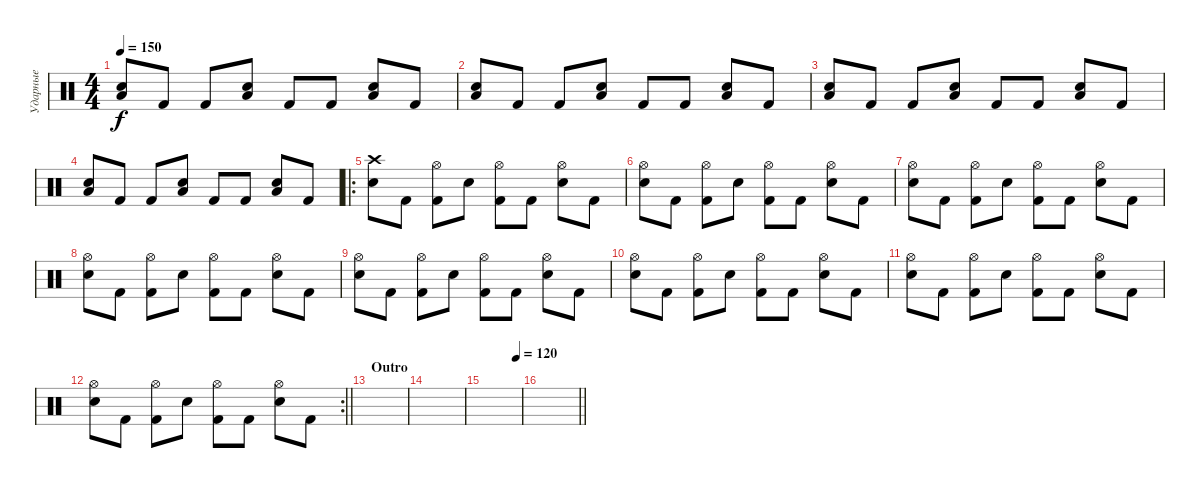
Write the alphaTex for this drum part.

\track ("Ударные" "Ударные") {instrument percussion}
\staff {score}
\articulation defaults
\ts (4 4)
\tempo 150
\clef neutral
\ks c
("Low Tom (hit)" "Electric Snare (hit)").8{dy f} "Kick (hit) 2".8 "Kick (hit) 2".8 ("Electric Snare (hit)" "Low Tom (hit)").8 "Kick (hit) 2".8 "Kick (hit) 2".8 ("Electric Snare (hit)" "Low Tom (hit)").8 "Kick (hit) 2".8 |
("Low Tom (hit)" "Electric Snare (hit)").8 "Kick (hit) 2".8 "Kick (hit) 2".8 ("Electric Snare (hit)" "Low Tom (hit)").8 "Kick (hit) 2".8 "Kick (hit) 2".8 ("Electric Snare (hit)" "Low Tom (hit)").8 "Kick (hit) 2".8 |
("Low Tom (hit)" "Electric Snare (hit)").8 "Kick (hit) 2".8 "Kick (hit) 2".8 ("Electric Snare (hit)" "Low Tom (hit)").8 "Kick (hit) 2".8 "Kick (hit) 2".8 ("Electric Snare (hit)" "Low Tom (hit)").8 "Kick (hit) 2".8 |
("Low Tom (hit)" "Electric Snare (hit)").8 "Kick (hit) 2".8 "Kick (hit) 2".8 ("Electric Snare (hit)" "Low Tom (hit)").8 "Kick (hit) 2".8 "Kick (hit) 2".8 ("Electric Snare (hit)" "Low Tom (hit)").8 "Kick (hit) 2".8 |
\ro
("Crash high (hit)" "Electric Snare (hit)").8 "Kick (hit) 2".8 ("Kick (hit) 2" "Hi-Hat (open)").8 "Snare (hit) 2".8 ("Kick (hit) 2" "Hi-Hat (open)").8 "Kick (hit) 2".8 ("Snare (hit) 2" "Hi-Hat (open)").8 "Kick (hit) 2".8 |
("Hi-Hat (open)" "Electric Snare (hit)").8 "Kick (hit) 2".8 ("Kick (hit) 2" "Hi-Hat (open)").8 "Snare (hit) 2".8 ("Kick (hit) 2" "Hi-Hat (open)").8 "Kick (hit) 2".8 ("Snare (hit) 2" "Hi-Hat (open)").8 "Kick (hit) 2".8 |
("Hi-Hat (open)" "Electric Snare (hit)").8 "Kick (hit) 2".8 ("Kick (hit) 2" "Hi-Hat (open)").8 "Snare (hit) 2".8 ("Kick (hit) 2" "Hi-Hat (open)").8 "Kick (hit) 2".8 ("Snare (hit) 2" "Hi-Hat (open)").8 "Kick (hit) 2".8 |
("Hi-Hat (open)" "Electric Snare (hit)").8 "Kick (hit) 2".8 ("Kick (hit) 2" "Hi-Hat (open)").8 "Snare (hit) 2".8 ("Kick (hit) 2" "Hi-Hat (open)").8 "Kick (hit) 2".8 ("Snare (hit) 2" "Hi-Hat (open)").8 "Kick (hit) 2".8 |
("Hi-Hat (open)" "Electric Snare (hit)").8 "Kick (hit) 2".8 ("Kick (hit) 2" "Hi-Hat (open)").8 "Snare (hit) 2".8 ("Kick (hit) 2" "Hi-Hat (open)").8 "Kick (hit) 2".8 ("Snare (hit) 2" "Hi-Hat (open)").8 "Kick (hit) 2".8 |
("Hi-Hat (open)" "Electric Snare (hit)").8 "Kick (hit) 2".8 ("Kick (hit) 2" "Hi-Hat (open)").8 "Snare (hit) 2".8 ("Kick (hit) 2" "Hi-Hat (open)").8 "Kick (hit) 2".8 ("Snare (hit) 2" "Hi-Hat (open)").8 "Kick (hit) 2".8 |
("Hi-Hat (open)" "Electric Snare (hit)").8 "Kick (hit) 2".8 ("Kick (hit) 2" "Hi-Hat (open)").8 "Snare (hit) 2".8 ("Kick (hit) 2" "Hi-Hat (open)").8 "Kick (hit) 2".8 ("Snare (hit) 2" "Hi-Hat (open)").8 "Kick (hit) 2".8 |
\rc 2
\barLineRight lightlight
("Hi-Hat (open)" "Electric Snare (hit)").8 "Kick (hit) 2".8 ("Kick (hit) 2" "Hi-Hat (open)").8 "Snare (hit) 2".8 ("Kick (hit) 2" "Hi-Hat (open)").8 "Kick (hit) 2".8 ("Snare (hit) 2" "Hi-Hat (open)").8 "Kick (hit) 2".8 |
\section ("" "Outro")
|
|
\tempo (120 0.875)
|
\barLineRight lightlight
